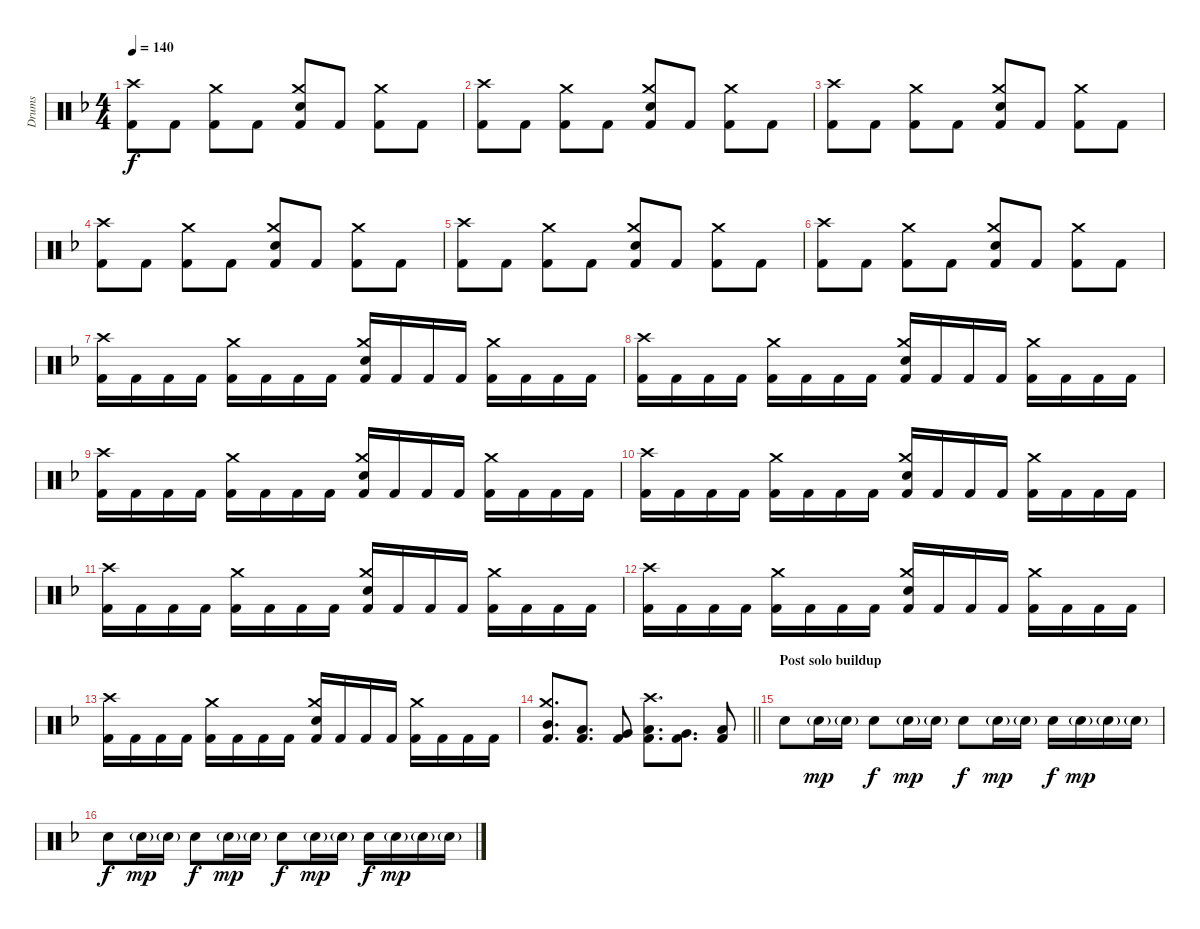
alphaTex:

\track ("Drums" "Drums") {instrument percussion}
\staff {score}
\articulation defaults
\ts (4 4)
\tempo 140
\clef neutral
\ks dminor
("Crash high (hit)" "Kick (hit) 2").8{dy f} "Kick (hit) 2".8 ("Crash medium (hit)" "Kick (hit) 2").8 "Kick (hit) 2".8 ("Crash medium (hit)" "Snare (hit) 2" "Kick (hit) 2").8 "Kick (hit) 2".8 ("Crash medium (hit)" "Kick (hit) 2").8 "Kick (hit) 2".8 |
("Crash high (hit)" "Kick (hit) 2").8 "Kick (hit) 2".8 ("Crash medium (hit)" "Kick (hit) 2").8 "Kick (hit) 2".8 ("Crash medium (hit)" "Snare (hit) 2" "Kick (hit) 2").8 "Kick (hit) 2".8 ("Crash medium (hit)" "Kick (hit) 2").8 "Kick (hit) 2".8 |
("Crash high (hit)" "Kick (hit) 2").8 "Kick (hit) 2".8 ("Crash medium (hit)" "Kick (hit) 2").8 "Kick (hit) 2".8 ("Crash medium (hit)" "Snare (hit) 2" "Kick (hit) 2").8 "Kick (hit) 2".8 ("Crash medium (hit)" "Kick (hit) 2").8 "Kick (hit) 2".8 |
("Crash high (hit)" "Kick (hit) 2").8 "Kick (hit) 2".8 ("Crash medium (hit)" "Kick (hit) 2").8 "Kick (hit) 2".8 ("Crash medium (hit)" "Snare (hit) 2" "Kick (hit) 2").8 "Kick (hit) 2".8 ("Crash medium (hit)" "Kick (hit) 2").8 "Kick (hit) 2".8 |
("Crash high (hit)" "Kick (hit) 2").8 "Kick (hit) 2".8 ("Crash medium (hit)" "Kick (hit) 2").8 "Kick (hit) 2".8 ("Crash medium (hit)" "Snare (hit) 2" "Kick (hit) 2").8 "Kick (hit) 2".8 ("Crash medium (hit)" "Kick (hit) 2").8 "Kick (hit) 2".8 |
("Crash high (hit)" "Kick (hit) 2").8 "Kick (hit) 2".8 ("Crash medium (hit)" "Kick (hit) 2").8 "Kick (hit) 2".8 ("Crash medium (hit)" "Snare (hit) 2" "Kick (hit) 2").8 "Kick (hit) 2".8 ("Crash medium (hit)" "Kick (hit) 2").8 "Kick (hit) 2".8 |
("Crash high (hit)" "Kick (hit) 2").16 "Kick (hit) 2".16 "Kick (hit) 2".16 "Kick (hit) 2".16 ("Crash medium (hit)" "Kick (hit) 2").16 "Kick (hit) 2".16 "Kick (hit) 2".16 "Kick (hit) 2".16 ("Crash medium (hit)" "Snare (hit) 2" "Kick (hit) 2").16 "Kick (hit) 2".16 "Kick (hit) 2".16 "Kick (hit) 2".16 ("Crash medium (hit)" "Kick (hit) 2").16 "Kick (hit) 2".16 "Kick (hit) 2".16 "Kick (hit) 2".16 |
("Crash high (hit)" "Kick (hit) 2").16 "Kick (hit) 2".16 "Kick (hit) 2".16 "Kick (hit) 2".16 ("Crash medium (hit)" "Kick (hit) 2").16 "Kick (hit) 2".16 "Kick (hit) 2".16 "Kick (hit) 2".16 ("Crash medium (hit)" "Snare (hit) 2" "Kick (hit) 2").16 "Kick (hit) 2".16 "Kick (hit) 2".16 "Kick (hit) 2".16 ("Crash medium (hit)" "Kick (hit) 2").16 "Kick (hit) 2".16 "Kick (hit) 2".16 "Kick (hit) 2".16 |
("Crash high (hit)" "Kick (hit) 2").16 "Kick (hit) 2".16 "Kick (hit) 2".16 "Kick (hit) 2".16 ("Crash medium (hit)" "Kick (hit) 2").16 "Kick (hit) 2".16 "Kick (hit) 2".16 "Kick (hit) 2".16 ("Crash medium (hit)" "Snare (hit) 2" "Kick (hit) 2").16 "Kick (hit) 2".16 "Kick (hit) 2".16 "Kick (hit) 2".16 ("Crash medium (hit)" "Kick (hit) 2").16 "Kick (hit) 2".16 "Kick (hit) 2".16 "Kick (hit) 2".16 |
("Crash high (hit)" "Kick (hit) 2").16 "Kick (hit) 2".16 "Kick (hit) 2".16 "Kick (hit) 2".16 ("Crash medium (hit)" "Kick (hit) 2").16 "Kick (hit) 2".16 "Kick (hit) 2".16 "Kick (hit) 2".16 ("Crash medium (hit)" "Snare (hit) 2" "Kick (hit) 2").16 "Kick (hit) 2".16 "Kick (hit) 2".16 "Kick (hit) 2".16 ("Crash medium (hit)" "Kick (hit) 2").16 "Kick (hit) 2".16 "Kick (hit) 2".16 "Kick (hit) 2".16 |
("Crash high (hit)" "Kick (hit) 2").16 "Kick (hit) 2".16 "Kick (hit) 2".16 "Kick (hit) 2".16 ("Crash medium (hit)" "Kick (hit) 2").16 "Kick (hit) 2".16 "Kick (hit) 2".16 "Kick (hit) 2".16 ("Crash medium (hit)" "Snare (hit) 2" "Kick (hit) 2").16 "Kick (hit) 2".16 "Kick (hit) 2".16 "Kick (hit) 2".16 ("Crash medium (hit)" "Kick (hit) 2").16 "Kick (hit) 2".16 "Kick (hit) 2".16 "Kick (hit) 2".16 |
("Crash high (hit)" "Kick (hit) 2").16 "Kick (hit) 2".16 "Kick (hit) 2".16 "Kick (hit) 2".16 ("Crash medium (hit)" "Kick (hit) 2").16 "Kick (hit) 2".16 "Kick (hit) 2".16 "Kick (hit) 2".16 ("Crash medium (hit)" "Snare (hit) 2" "Kick (hit) 2").16 "Kick (hit) 2".16 "Kick (hit) 2".16 "Kick (hit) 2".16 ("Crash medium (hit)" "Kick (hit) 2").16 "Kick (hit) 2".16 "Kick (hit) 2".16 "Kick (hit) 2".16 |
("Crash high (hit)" "Kick (hit) 2").16 "Kick (hit) 2".16 "Kick (hit) 2".16 "Kick (hit) 2".16 ("Crash medium (hit)" "Kick (hit) 2").16 "Kick (hit) 2".16 "Kick (hit) 2".16 "Kick (hit) 2".16 ("Crash medium (hit)" "Snare (hit) 2" "Kick (hit) 2").16 "Kick (hit) 2".16 "Kick (hit) 2".16 "Kick (hit) 2".16 ("Crash medium (hit)" "Kick (hit) 2").16 "Kick (hit) 2".16 "Kick (hit) 2".16 "Kick (hit) 2".16 |
\barLineRight lightlight
("Crash medium (hit)" "Mid Tom (hit)" "Kick (hit) 2").8{d} ("Low Tom (hit)" "Kick (hit) 2").8{d} ("Very Low Tom (hit)" "Kick (hit) 2").8 ("Crash high (hit)" "Low Tom (hit)" "Kick (hit) 2").8{d} ("Very Low Tom (hit)" "Kick (hit) 2").8{d} ("Low Floor Tom (hit)" "Kick (hit) 2").8 |
\section ("" "Post solo buildup")
"Snare (hit) 2".8 "Snare (hit) 2"{g}.16{dy mp} "Snare (hit) 2"{g}.16 "Snare (hit) 2".8{dy f} "Snare (hit) 2"{g}.16{dy mp} "Snare (hit) 2"{g}.16 "Snare (hit) 2".8{dy f} "Snare (hit) 2"{g}.16{dy mp} "Snare (hit) 2"{g}.16 "Snare (hit) 2".16{dy f} "Snare (hit) 2"{g}.16{dy mp} "Snare (hit) 2"{g}.16 "Snare (hit) 2"{g}.16 |
"Snare (hit) 2".8{dy f} "Snare (hit) 2"{g}.16{dy mp} "Snare (hit) 2"{g}.16 "Snare (hit) 2".8{dy f} "Snare (hit) 2"{g}.16{dy mp} "Snare (hit) 2"{g}.16 "Snare (hit) 2".8{dy f} "Snare (hit) 2"{g}.16{dy mp} "Snare (hit) 2"{g}.16 "Snare (hit) 2".16{dy f} "Snare (hit) 2"{g}.16{dy mp} "Snare (hit) 2"{g}.16 "Snare (hit) 2"{g}.16
